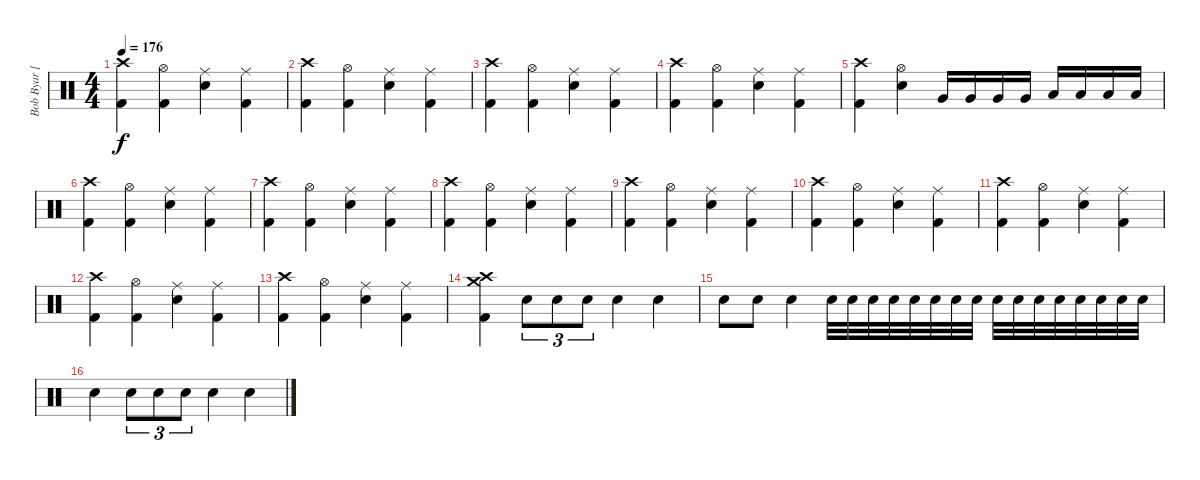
\track ("Bob Byar [Drums]" "Bob Byar [") {instrument percussion}
\staff {score}
\articulation defaults
\ts (4 4)
\tempo 176
\clef neutral
\ks c
("Crash high (hit)" "Kick (hit) 2").4{dy f} ("Hi-Hat (open)" "Kick (hit) 2").4 ("Ride (middle)" "Electric Snare (hit)").4 ("Ride (middle)" "Kick (hit) 2").4 |
("Crash high (hit)" "Kick (hit) 2").4 ("Hi-Hat (open)" "Kick (hit) 2").4 ("Ride (middle)" "Electric Snare (hit)").4 ("Ride (middle)" "Kick (hit) 2").4 |
("Crash high (hit)" "Kick (hit) 2").4 ("Hi-Hat (open)" "Kick (hit) 2").4 ("Ride (middle)" "Electric Snare (hit)").4 ("Ride (middle)" "Kick (hit) 2").4 |
("Crash high (hit)" "Kick (hit) 2").4 ("Hi-Hat (open)" "Kick (hit) 2").4 ("Ride (middle)" "Electric Snare (hit)").4 ("Ride (middle)" "Kick (hit) 2").4 |
("Crash high (hit)" "Kick (hit) 2").4 ("Hi-Hat (open)" "Electric Snare (hit)").4 "Very Low Tom (hit)".16 "Very Low Tom (hit)".16 "Very Low Tom (hit)".16 "Very Low Tom (hit)".16 "Low Floor Tom (hit)".16 "Low Floor Tom (hit)".16 "Low Floor Tom (hit)".16 "Low Floor Tom (hit)".16 |
("Crash high (hit)" "Kick (hit) 2").4 ("Hi-Hat (open)" "Kick (hit) 2").4 ("Ride (middle)" "Electric Snare (hit)").4 ("Ride (middle)" "Kick (hit) 2").4 |
("Crash high (hit)" "Kick (hit) 2").4 ("Hi-Hat (open)" "Kick (hit) 2").4 ("Ride (middle)" "Electric Snare (hit)").4 ("Ride (middle)" "Kick (hit) 2").4 |
("Crash high (hit)" "Kick (hit) 2").4 ("Hi-Hat (open)" "Kick (hit) 2").4 ("Ride (middle)" "Electric Snare (hit)").4 ("Ride (middle)" "Kick (hit) 2").4 |
("Crash high (hit)" "Kick (hit) 2").4 ("Hi-Hat (open)" "Kick (hit) 2").4 ("Ride (middle)" "Electric Snare (hit)").4 ("Ride (middle)" "Kick (hit) 2").4 |
("Crash high (hit)" "Kick (hit) 2").4 ("Hi-Hat (open)" "Kick (hit) 2").4 ("Ride (middle)" "Electric Snare (hit)").4 ("Ride (middle)" "Kick (hit) 2").4 |
("Crash high (hit)" "Kick (hit) 2").4 ("Hi-Hat (open)" "Kick (hit) 2").4 ("Ride (middle)" "Electric Snare (hit)").4 ("Ride (middle)" "Kick (hit) 2").4 |
("Crash high (hit)" "Kick (hit) 2").4 ("Hi-Hat (open)" "Kick (hit) 2").4 ("Ride (middle)" "Electric Snare (hit)").4 ("Ride (middle)" "Kick (hit) 2").4 |
("Crash high (hit)" "Kick (hit) 2").4 ("Hi-Hat (open)" "Kick (hit) 2").4 ("Ride (middle)" "Electric Snare (hit)").4 ("Ride (middle)" "Kick (hit) 2").4 |
("Crash medium (hit)" "Crash high (hit)" "Kick (hit) 2").4 "Electric Snare (hit)".8{tu (3 2)} "Electric Snare (hit)".8{tu (3 2) volume 9} "Electric Snare (hit)".8{tu (3 2)} "Electric Snare (hit)".4 "Electric Snare (hit)".4 |
"Electric Snare (hit)".8 "Electric Snare (hit)".8 "Electric Snare (hit)".4 "Electric Snare (hit)".32 "Electric Snare (hit)".32 "Electric Snare (hit)".32 "Electric Snare (hit)".32 "Electric Snare (hit)".32 "Electric Snare (hit)".32 "Electric Snare (hit)".32 "Electric Snare (hit)".32 "Electric Snare (hit)".32 "Electric Snare (hit)".32 "Electric Snare (hit)".32 "Electric Snare (hit)".32 "Electric Snare (hit)".32 "Electric Snare (hit)".32 "Electric Snare (hit)".32 "Electric Snare (hit)".32 |
"Electric Snare (hit)".4{volume 10} "Electric Snare (hit)".8{tu (3 2)} "Electric Snare (hit)".8{tu (3 2)} "Electric Snare (hit)".8{tu (3 2)} "Electric Snare (hit)".4 "Electric Snare (hit)".4
